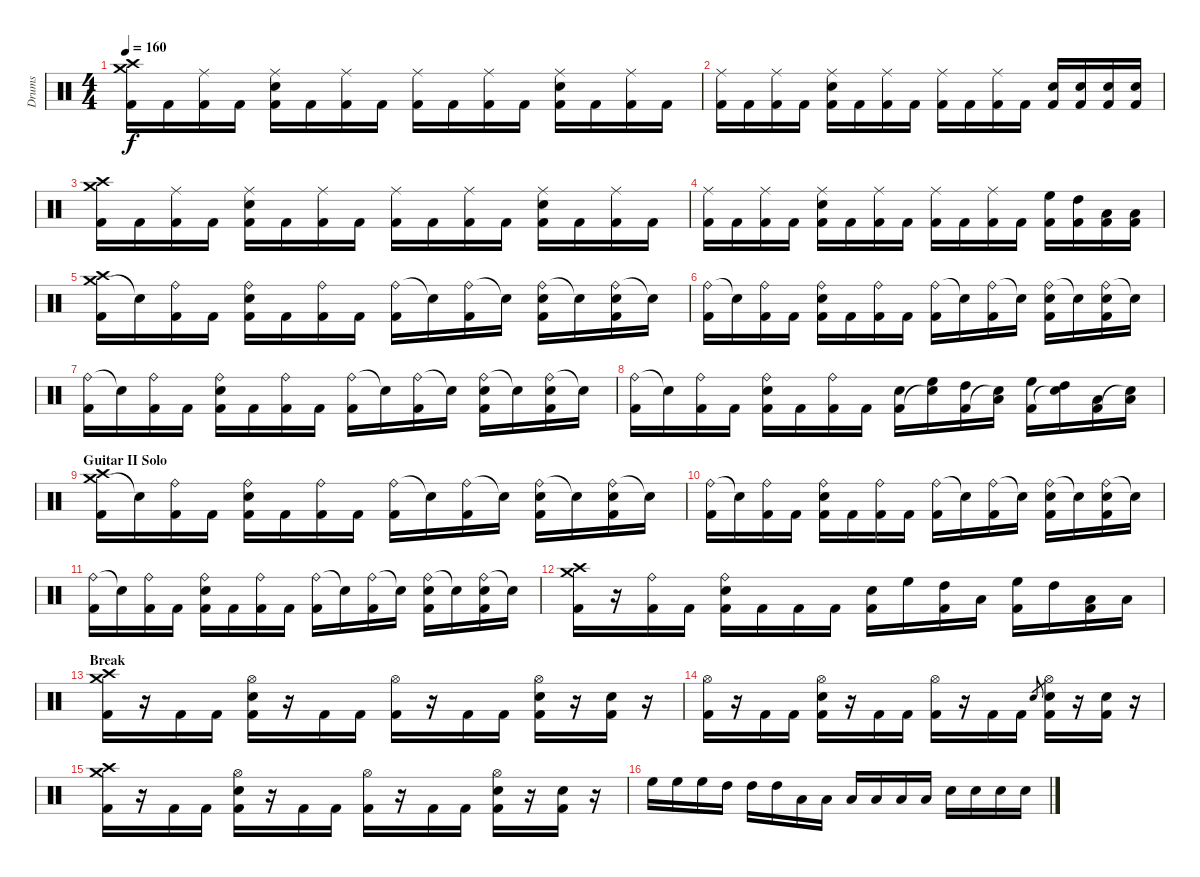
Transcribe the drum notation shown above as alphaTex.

\track ("Drums" "Drums") {instrument percussion}
\staff {score}
\articulation defaults
\ts (4 4)
\tempo 160
\clef neutral
\ks c
("Crash medium (hit)" "Crash high (hit)" "Kick (hit) 2").16{dy f} "Kick (hit) 2".16 ("Ride (middle)" "Kick (hit) 2").16 "Kick (hit) 2".16 ("Ride (middle)" "Electric Snare (hit)" "Kick (hit) 2").16 "Kick (hit) 2".16 ("Ride (middle)" "Kick (hit) 2").16 "Kick (hit) 2".16 ("Ride (middle)" "Kick (hit) 2").16 "Kick (hit) 2".16 ("Ride (middle)" "Kick (hit) 2").16 "Kick (hit) 2".16 ("Ride (middle)" "Electric Snare (hit)" "Kick (hit) 2").16 "Kick (hit) 2".16 ("Ride (middle)" "Kick (hit) 2").16 "Kick (hit) 2".16 |
("Ride (middle)" "Kick (hit) 2").16 "Kick (hit) 2".16 ("Ride (middle)" "Kick (hit) 2").16 "Kick (hit) 2".16 ("Ride (middle)" "Electric Snare (hit)" "Kick (hit) 2").16 "Kick (hit) 2".16 ("Ride (middle)" "Kick (hit) 2").16 "Kick (hit) 2".16 ("Ride (middle)" "Kick (hit) 2").16 "Kick (hit) 2".16 ("Ride (middle)" "Kick (hit) 2").16 "Kick (hit) 2".16 ("Electric Snare (hit)" "Kick (hit) 2").16 ("Electric Snare (hit)" "Kick (hit) 2").16 ("Electric Snare (hit)" "Kick (hit) 2").16 ("Electric Snare (hit)" "Kick (hit) 2").16 |
("Crash medium (hit)" "Crash high (hit)" "Kick (hit) 2").16 "Kick (hit) 2".16 ("Ride (middle)" "Kick (hit) 2").16 "Kick (hit) 2".16 ("Ride (middle)" "Electric Snare (hit)" "Kick (hit) 2").16 "Kick (hit) 2".16 ("Ride (middle)" "Kick (hit) 2").16 "Kick (hit) 2".16 ("Ride (middle)" "Kick (hit) 2").16 "Kick (hit) 2".16 ("Ride (middle)" "Kick (hit) 2").16 "Kick (hit) 2".16 ("Ride (middle)" "Electric Snare (hit)" "Kick (hit) 2").16 "Kick (hit) 2".16 ("Ride (middle)" "Kick (hit) 2").16 "Kick (hit) 2".16 |
("Ride (middle)" "Kick (hit) 2").16 "Kick (hit) 2".16 ("Ride (middle)" "Kick (hit) 2").16 "Kick (hit) 2".16 ("Ride (middle)" "Electric Snare (hit)" "Kick (hit) 2").16 "Kick (hit) 2".16 ("Ride (middle)" "Kick (hit) 2").16 "Kick (hit) 2".16 ("Ride (middle)" "Kick (hit) 2").16 "Kick (hit) 2".16 ("Ride (middle)" "Kick (hit) 2").16 "Kick (hit) 2".16 ("High Floor Tom (hit)" "Kick (hit) 2").16 ("High Tom (hit)" "Kick (hit) 2").16 ("Low Tom (hit)" "Kick (hit) 2").16 ("Low Floor Tom (hit)" "Kick (hit) 2").16 |
("Crash medium (hit)" "Crash high (hit)" "Kick (hit) 2").16 "Snare (hit)"{t}.16 ("Ride (bell)" "Kick (hit) 2").16 "Kick (hit) 2".16 ("Ride (bell)" "Electric Snare (hit)" "Kick (hit) 2").16 "Kick (hit) 2".16 ("Ride (bell)" "Kick (hit) 2").16 "Kick (hit) 2".16 ("Ride (bell)" "Kick (hit) 2").16 "Snare (hit)"{t}.16 ("Ride (bell)" "Kick (hit) 2").16 "Snare (hit)"{t}.16 ("Ride (bell)" "Electric Snare (hit)" "Kick (hit) 2").16 "Snare (hit)"{t}.16 ("Ride (bell)" "Electric Snare (hit)" "Kick (hit) 2").16 "Snare (hit)"{t}.16 |
("Ride (bell)" "Kick (hit) 2").16 "Snare (hit)"{t}.16 ("Ride (bell)" "Kick (hit) 2").16 "Kick (hit) 2".16 ("Ride (bell)" "Electric Snare (hit)" "Kick (hit) 2").16 "Kick (hit) 2".16 ("Ride (bell)" "Kick (hit) 2").16 "Kick (hit) 2".16 ("Ride (bell)" "Kick (hit) 2").16 "Snare (hit)"{t}.16 ("Ride (bell)" "Kick (hit) 2").16 "Snare (hit)"{t}.16 ("Ride (bell)" "Electric Snare (hit)" "Kick (hit) 2").16 "Snare (hit)"{t}.16 ("Ride (bell)" "Electric Snare (hit)" "Kick (hit) 2").16 "Snare (hit)"{t}.16 |
("Ride (bell)" "Kick (hit) 2").16 "Snare (hit)"{t}.16 ("Ride (bell)" "Kick (hit) 2").16 "Kick (hit) 2".16 ("Ride (bell)" "Electric Snare (hit)" "Kick (hit) 2").16 "Kick (hit) 2".16 ("Ride (bell)" "Kick (hit) 2").16 "Kick (hit) 2".16 ("Ride (bell)" "Kick (hit) 2").16 "Snare (hit)"{t}.16 ("Ride (bell)" "Kick (hit) 2").16 "Snare (hit)"{t}.16 ("Ride (bell)" "Electric Snare (hit)" "Kick (hit) 2").16 "Snare (hit)"{t}.16 ("Ride (bell)" "Electric Snare (hit)" "Kick (hit) 2").16 "Snare (hit)"{t}.16 |
("Ride (bell)" "Kick (hit) 2").16 "Snare (hit)"{t}.16 ("Ride (bell)" "Kick (hit) 2").16 "Kick (hit) 2".16 ("Ride (bell)" "Electric Snare (hit)" "Kick (hit) 2").16 "Kick (hit) 2".16 ("Ride (bell)" "Kick (hit) 2").16 "Kick (hit) 2".16 ("Electric Snare (hit)" "Kick (hit) 2").16 ("High Floor Tom (hit)" "Snare (hit)"{t}).16 ("High Tom (hit)" "Kick (hit) 2").16 ("Low Tom (hit)" "Snare (hit)"{t}).16 ("High Floor Tom (hit)" "Kick (hit) 2").16 ("High Tom (hit)" "Snare (hit)"{t}).16 ("Low Tom (hit)" "Kick (hit) 2").16 ("Low Floor Tom (hit)" "Snare (hit)"{t}).16 |
\section ("" "Guitar II Solo")
("Crash medium (hit)" "Crash high (hit)" "Kick (hit) 2").16 "Snare (hit)"{t}.16 ("Ride (bell)" "Kick (hit) 2").16 "Kick (hit) 2".16 ("Ride (bell)" "Electric Snare (hit)" "Kick (hit) 2").16 "Kick (hit) 2".16 ("Ride (bell)" "Kick (hit) 2").16 "Kick (hit) 2".16 ("Ride (bell)" "Kick (hit) 2").16 "Snare (hit)"{t}.16 ("Ride (bell)" "Kick (hit) 2").16 "Snare (hit)"{t}.16 ("Ride (bell)" "Electric Snare (hit)" "Kick (hit) 2").16 "Snare (hit)"{t}.16 ("Ride (bell)" "Electric Snare (hit)" "Kick (hit) 2").16 "Snare (hit)"{t}.16 |
("Ride (bell)" "Kick (hit) 2").16 "Snare (hit)"{t}.16 ("Ride (bell)" "Kick (hit) 2").16 "Kick (hit) 2".16 ("Ride (bell)" "Electric Snare (hit)" "Kick (hit) 2").16 "Kick (hit) 2".16 ("Ride (bell)" "Kick (hit) 2").16 "Kick (hit) 2".16 ("Ride (bell)" "Kick (hit) 2").16 "Snare (hit)"{t}.16 ("Ride (bell)" "Kick (hit) 2").16 "Snare (hit)"{t}.16 ("Ride (bell)" "Electric Snare (hit)" "Kick (hit) 2").16 "Snare (hit)"{t}.16 ("Ride (bell)" "Electric Snare (hit)" "Kick (hit) 2").16 "Snare (hit)"{t}.16 |
("Ride (bell)" "Kick (hit) 2").16 "Snare (hit)"{t}.16 ("Ride (bell)" "Kick (hit) 2").16 "Kick (hit) 2".16 ("Ride (bell)" "Electric Snare (hit)" "Kick (hit) 2").16 "Kick (hit) 2".16 ("Ride (bell)" "Kick (hit) 2").16 "Kick (hit) 2".16 ("Ride (bell)" "Kick (hit) 2").16 "Snare (hit)"{t}.16 ("Ride (bell)" "Kick (hit) 2").16 "Snare (hit)"{t}.16 ("Ride (bell)" "Electric Snare (hit)" "Kick (hit) 2").16 "Snare (hit)"{t}.16 ("Ride (bell)" "Electric Snare (hit)" "Kick (hit) 2").16 "Snare (hit)"{t}.16 |
("Crash medium (hit)" "Crash high (hit)" "Kick (hit) 2").16 r.16 ("Ride (bell)" "Kick (hit) 2").16 "Kick (hit) 2".16 ("Ride (bell)" "Electric Snare (hit)" "Kick (hit) 2").16 "Kick (hit) 2".16 "Kick (hit) 2".16 "Kick (hit) 2".16 ("Electric Snare (hit)" "Kick (hit) 2").16 "High Floor Tom (hit)".16 ("High Tom (hit)" "Kick (hit) 2").16 "Low Tom (hit)".16 ("High Floor Tom (hit)" "Kick (hit) 2").16 "High Tom (hit)".16 ("Low Tom (hit)" "Kick (hit) 2").16 "Low Floor Tom (hit)".16 |
\section ("" "Break")
("Crash medium (hit)" "Crash high (hit)" "Kick (hit) 2").16 r.16 "Kick (hit) 2".16 "Kick (hit) 2".16 ("Hi-Hat (open)" "Electric Snare (hit)" "Kick (hit) 2").16 r.16 "Kick (hit) 2".16 "Kick (hit) 2".16 ("Hi-Hat (open)" "Kick (hit) 2").16 r.16 "Kick (hit) 2".16 "Kick (hit) 2".16 ("Hi-Hat (open)" "Electric Snare (hit)" "Kick (hit) 2").16 r.16 ("Electric Snare (hit)" "Kick (hit) 2").16 r.16 |
("Hi-Hat (open)" "Kick (hit) 2").16 r.16 "Kick (hit) 2".16 "Kick (hit) 2".16 ("Hi-Hat (open)" "Electric Snare (hit)" "Kick (hit) 2").16 r.16 "Kick (hit) 2".16 "Kick (hit) 2".16 ("Hi-Hat (open)" "Kick (hit) 2").16 r.16 "Kick (hit) 2".16 "Kick (hit) 2".16 "Electric Snare (hit)".8{gr} ("Hi-Hat (open)" "Electric Snare (hit)" "Kick (hit) 2").16 r.16 ("Electric Snare (hit)" "Kick (hit) 2").16 r.16 |
("Crash medium (hit)" "Crash high (hit)" "Kick (hit) 2").16 r.16 "Kick (hit) 2".16 "Kick (hit) 2".16 ("Hi-Hat (open)" "Electric Snare (hit)" "Kick (hit) 2").16 r.16 "Kick (hit) 2".16 "Kick (hit) 2".16 ("Hi-Hat (open)" "Kick (hit) 2").16 r.16 "Kick (hit) 2".16 "Kick (hit) 2".16 ("Hi-Hat (open)" "Electric Snare (hit)" "Kick (hit) 2").16 r.16 ("Electric Snare (hit)" "Kick (hit) 2").16 r.16 |
"High Floor Tom (hit)".16 "High Floor Tom (hit)".16 "High Floor Tom (hit)".16 "High Tom (hit)".16 "High Tom (hit)".16 "High Tom (hit)".16 "Low Tom (hit)".16 "Low Tom (hit)".16 "Low Tom (hit)".16 "Low Floor Tom (hit)".16 "Low Floor Tom (hit)".16 "Low Floor Tom (hit)".16 "Electric Snare (hit)".16 "Electric Snare (hit)".16 "Electric Snare (hit)".16 "Electric Snare (hit)".16
